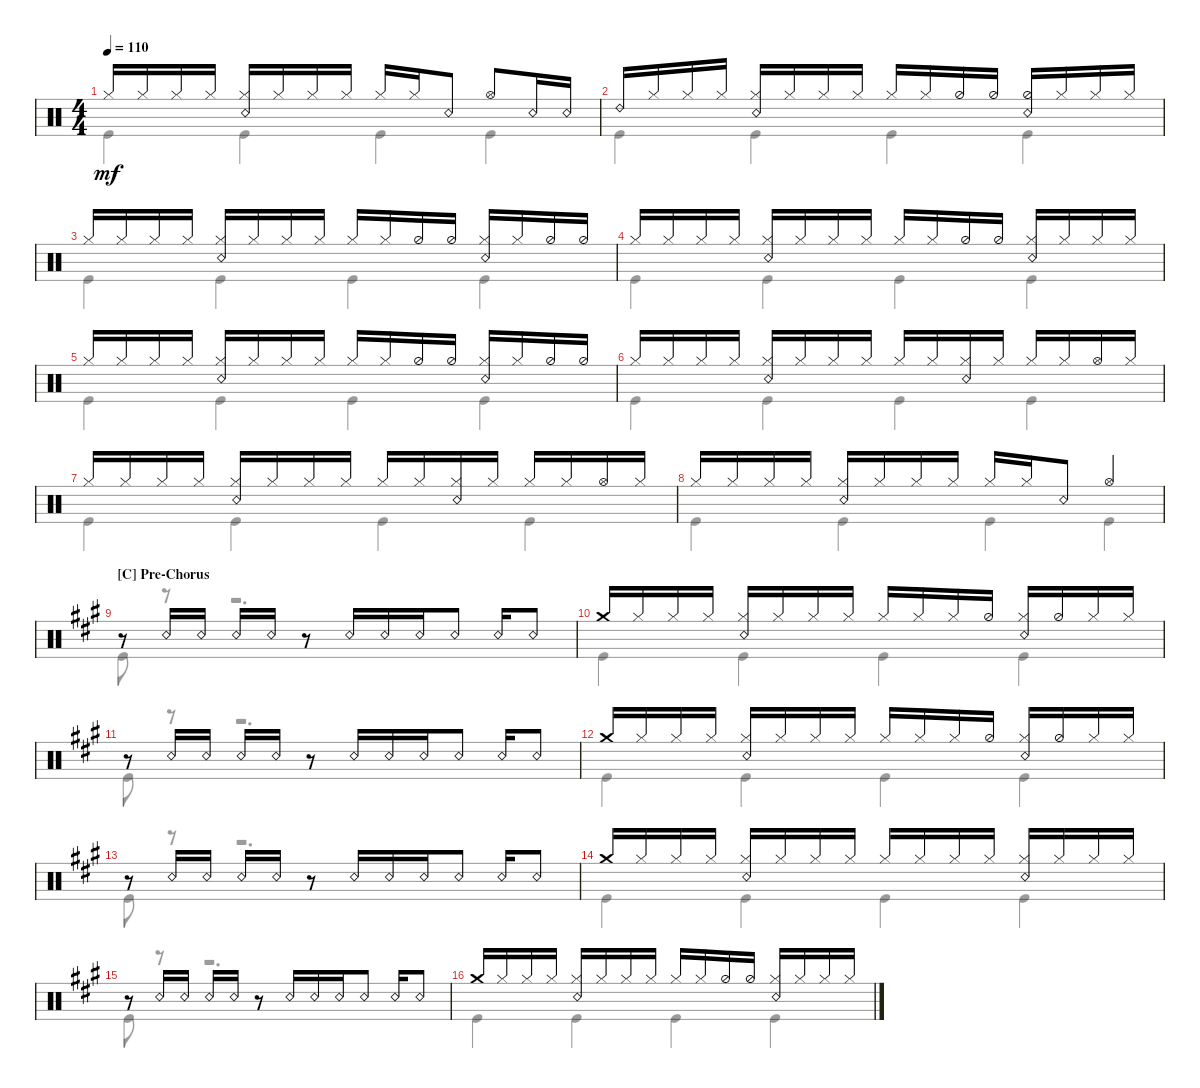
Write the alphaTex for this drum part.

\defaultSystemsLayout 4
\bracketExtendMode groupsimilarinstruments
\singleTrackTrackNamePolicy hidden
\multiTrackTrackNamePolicy hidden
\firstSystemTrackNameOrientation horizontal
\otherSystemsTrackNameOrientation horizontal
\track ("Максим Удалов" "Drums") {instrument percussion}
\staff {score}
\articulation defaults
\voice
\ts (4 4)
\tempo 110
\clef neutral
\scale
1.02648
\ks c "Hi-Hat (closed)".16{dy mf} "Hi-Hat (closed)".16 "Hi-Hat (closed)".16 "Hi-Hat (closed)".16
("Hi-Hat (closed)" "Snare (rim shot)").16 "Hi-Hat (closed)".16 "Hi-Hat (closed)".16 "Hi-Hat (closed)".16 "Hi-Hat (closed)".16 "Hi-Hat (closed)".16 "Snare (rim shot)".8 "Hi-Hat (open)".8 "Snare (rim shot)".16 "Snare (rim shot)".16 |
\scale
0.973518 "Ride (bell) 2".16 "Hi-Hat (closed)".16 "Hi-Hat (closed)".16 "Hi-Hat (closed)".16 ("Hi-Hat (closed)" "Snare (rim shot)").16 "Hi-Hat (closed)".16 "Hi-Hat (closed)".16 "Hi-Hat (closed)".16 "Hi-Hat (closed)".16 "Hi-Hat (closed)".16 "Hi-Hat (half)".16 "Hi-Hat (half)".16 ("Hi-Hat (half)" "Snare (rim shot)").16 "Hi-Hat (closed)".16 "Hi-Hat (closed)".16 "Hi-Hat (closed)".16 |
\scale
1.02648 "Hi-Hat (closed)".16 "Hi-Hat (closed)".16 "Hi-Hat (closed)".16 "Hi-Hat (closed)".16 ("Hi-Hat (closed)" "Snare (rim shot)").16 "Hi-Hat (closed)".16 "Hi-Hat (closed)".16 "Hi-Hat (closed)".16 "Hi-Hat (closed)".16 "Hi-Hat (closed)".16 "Hi-Hat (half)".16 "Hi-Hat (half)".16 ("Snare (rim shot)" "Hi-Hat (closed)").16 "Hi-Hat (closed)".16 "Hi-Hat (half)".16 "Hi-Hat (half)".16 |
\scale
0.973518 "Hi-Hat (closed)".16 "Hi-Hat (closed)".16 "Hi-Hat (closed)".16 "Hi-Hat (closed)".16 ("Hi-Hat (closed)" "Snare (rim shot)").16 "Hi-Hat (closed)".16 "Hi-Hat (closed)".16 "Hi-Hat (closed)".16 "Hi-Hat (closed)".16 "Hi-Hat (closed)".16 "Hi-Hat (half)".16 "Hi-Hat (half)".16 ("Snare (rim shot)" "Hi-Hat (closed)").16 "Hi-Hat (closed)".16 "Hi-Hat (closed)".16 "Hi-Hat (closed)".16 |
\scale
1.02648 "Hi-Hat (closed)".16 "Hi-Hat (closed)".16 "Hi-Hat (closed)".16 "Hi-Hat (closed)".16 ("Hi-Hat (closed)" "Snare (rim shot)").16 "Hi-Hat (closed)".16 "Hi-Hat (closed)".16 "Hi-Hat (closed)".16 "Hi-Hat (closed)".16 "Hi-Hat (closed)".16 "Hi-Hat (half)".16 "Hi-Hat (half)".16 ("Snare (rim shot)" "Hi-Hat (closed)").16 "Hi-Hat (closed)".16 "Hi-Hat (half)".16 "Hi-Hat (half)".16 |
\scale
0.973518 "Hi-Hat (closed)".16 "Hi-Hat (closed)".16 "Hi-Hat (closed)".16 "Hi-Hat (closed)".16 ("Hi-Hat (closed)" "Snare (rim shot)").16 "Hi-Hat (closed)".16 "Hi-Hat (closed)".16 "Hi-Hat (closed)".16 "Hi-Hat (closed)".16 "Hi-Hat (closed)".16 ("Hi-Hat (closed)" "Snare (rim shot)").16 "Hi-Hat (closed)".16 "Hi-Hat (closed)".16 "Hi-Hat (closed)".16 "Hi-Hat (open)".16 "Hi-Hat (closed)".16 |
\scale
1.02648 "Hi-Hat (closed)".16 "Hi-Hat (closed)".16 "Hi-Hat (closed)".16 "Hi-Hat (closed)".16 ("Hi-Hat (closed)" "Snare (rim shot)").16 "Hi-Hat (closed)".16 "Hi-Hat (closed)".16 "Hi-Hat (closed)".16 "Hi-Hat (closed)".16 "Hi-Hat (closed)".16 ("Hi-Hat (closed)" "Snare (rim shot)").16 "Hi-Hat (closed)".16 "Hi-Hat (closed)".16 "Hi-Hat (closed)".16 "Hi-Hat (open)".16 "Hi-Hat (closed)".16 |
\scale
0.973518 "Hi-Hat (closed)".16 "Hi-Hat (closed)".16 "Hi-Hat (closed)".16 "Hi-Hat (closed)".16 ("Hi-Hat (closed)" "Snare (rim shot)").16 "Hi-Hat (closed)".16 "Hi-Hat (closed)".16 "Hi-Hat (closed)".16 "Hi-Hat (closed)".16 "Hi-Hat (closed)".16 "Snare (rim shot)".8 "Hi-Hat (open)".4 |
\section ("C" "Pre-Chorus")
\scale
1.02648
\ks a
r.8 "Snare (rim shot)".16 "Snare (rim shot)".16 "Snare (rim shot)".16 "Snare (rim shot)".16 r.8 "Snare (rim shot)".16 "Snare (rim shot)".16 "Snare (rim shot)".16 "Snare (rim shot)".8 "Snare (rim shot)".16 "Snare (rim shot)".8 |
\scale
0.973518 "Crash medium (hit)".16 "Hi-Hat (closed)".16 "Hi-Hat (closed)".16 "Hi-Hat (closed)".16 ("Hi-Hat (closed)" "Snare (rim shot)").16 "Hi-Hat (closed)".16 "Hi-Hat (closed)".16 "Hi-Hat (closed)".16 "Hi-Hat (closed)".16 "Hi-Hat (closed)".16 "Hi-Hat (closed)".16 "Hi-Hat (half)".16 ("Hi-Hat (closed)" "Snare (rim shot)").16 "Hi-Hat (half)".16 "Hi-Hat (closed)".16 "Hi-Hat (closed)".16 |
\scale
1.02648 r.8 "Snare (rim shot)".16 "Snare (rim shot)".16 "Snare (rim shot)".16 "Snare (rim shot)".16 r.8 "Snare (rim shot)".16 "Snare (rim shot)".16 "Snare (rim shot)".16 "Snare (rim shot)".8 "Snare (rim shot)".16 "Snare (rim shot)".8 |
\scale
0.973518 "Crash medium (hit)".16 "Hi-Hat (closed)".16 "Hi-Hat (closed)".16 "Hi-Hat (closed)".16 ("Hi-Hat (closed)" "Snare (rim shot)").16 "Hi-Hat (closed)".16 "Hi-Hat (closed)".16 "Hi-Hat (closed)".16 "Hi-Hat (closed)".16 "Hi-Hat (closed)".16 "Hi-Hat (closed)".16 "Hi-Hat (half)".16 ("Hi-Hat (closed)" "Snare (rim shot)").16 "Hi-Hat (half)".16 "Hi-Hat (closed)".16 "Hi-Hat (closed)".16 |
\scale
1.02648 r.8 "Snare (rim shot)".16 "Snare (rim shot)".16 "Snare (rim shot)".16 "Snare (rim shot)".16 r.8 "Snare (rim shot)".16 "Snare (rim shot)".16 "Snare (rim shot)".16 "Snare (rim shot)".8 "Snare (rim shot)".16 "Snare (rim shot)".8 |
\scale
0.973518 "Crash medium (hit)".16 "Hi-Hat (closed)".16 "Hi-Hat (closed)".16 "Hi-Hat (closed)".16 ("Hi-Hat (closed)" "Snare (rim shot)").16 "Hi-Hat (closed)".16 "Hi-Hat (closed)".16 "Hi-Hat (closed)".16 "Hi-Hat (closed)".16 "Hi-Hat (closed)".16 "Hi-Hat (closed)".16 "Hi-Hat (closed)".16 ("Hi-Hat (closed)" "Snare (rim shot)").16 "Hi-Hat (closed)".16 "Hi-Hat (closed)".16 "Hi-Hat (closed)".16 |
\scale
1.02648 r.8 "Snare (rim shot)".16 "Snare (rim shot)".16 "Snare (rim shot)".16 "Snare (rim shot)".16 r.8 "Snare (rim shot)".16 "Snare (rim shot)".16 "Snare (rim shot)".16 "Snare (rim shot)".8 "Snare (rim shot)".16 "Snare (rim shot)".8 |
\scale
0.973518 "Crash medium (hit)".16 "Hi-Hat (closed)".16 "Hi-Hat (closed)".16 "Hi-Hat (closed)".16 ("Hi-Hat (closed)" "Snare (rim shot)").16 "Hi-Hat (closed)".16 "Hi-Hat (closed)".16 "Hi-Hat (closed)".16 "Hi-Hat (closed)".16 "Hi-Hat (closed)".16 "Hi-Hat (half)".16 "Hi-Hat (half)".16 ("Hi-Hat (closed)" "Snare (rim shot)").16 "Hi-Hat (closed)".16 "Hi-Hat (closed)".16 "Hi-Hat (closed)".16
\voice
\clef neutral
\ottava regular
\simile none
\scale
1.02648
\ks c "Kick (hit)".4{dy mf} "Kick (hit)".4 "Kick (hit)".4 "Kick (hit)".4
|
\scale
0.973518 "Kick (hit)".4 "Kick (hit)".4 "Kick (hit)".4 "Kick (hit)".4 |
\scale
1.02648 "Kick (hit)".4 "Kick (hit)".4 "Kick (hit)".4 "Kick (hit)".4 |
\scale
0.973518 "Kick (hit)".4 "Kick (hit)".4 "Kick (hit)".4 "Kick (hit)".4 |
\scale
1.02648 "Kick (hit)".4 "Kick (hit)".4 "Kick (hit)".4 "Kick (hit)".4 |
\scale
0.973518 "Kick (hit)".4 "Kick (hit)".4 "Kick (hit)".4 "Kick (hit)".4 |
\scale
1.02648 "Kick (hit)".4 "Kick (hit)".4 "Kick (hit)".4 "Kick (hit)".4 |
\scale
0.973518 "Kick (hit)".4 "Kick (hit)".4 "Kick (hit)".4 "Kick (hit)".4 |
\scale
1.02648
\ks a "Kick (hit)".8
r.8 r.2{d} |
\scale
0.973518 "Kick (hit)".4 "Kick (hit)".4 "Kick (hit)".4 "Kick (hit)".4 |
\scale
1.02648 "Kick (hit)".8 r.8 r.2{d} |
\scale
0.973518 "Kick (hit)".4 "Kick (hit)".4 "Kick (hit)".4 "Kick (hit)".4 |
\scale
1.02648 "Kick (hit)".8 r.8 r.2{d} |
\scale
0.973518 "Kick (hit)".4 "Kick (hit)".4 "Kick (hit)".4 "Kick (hit)".4 |
\scale
1.02648 "Kick (hit)".8 r.8 r.2{d} |
\scale
0.973518 "Kick (hit)".4 "Kick (hit)".4 "Kick (hit)".4 "Kick (hit)".4
